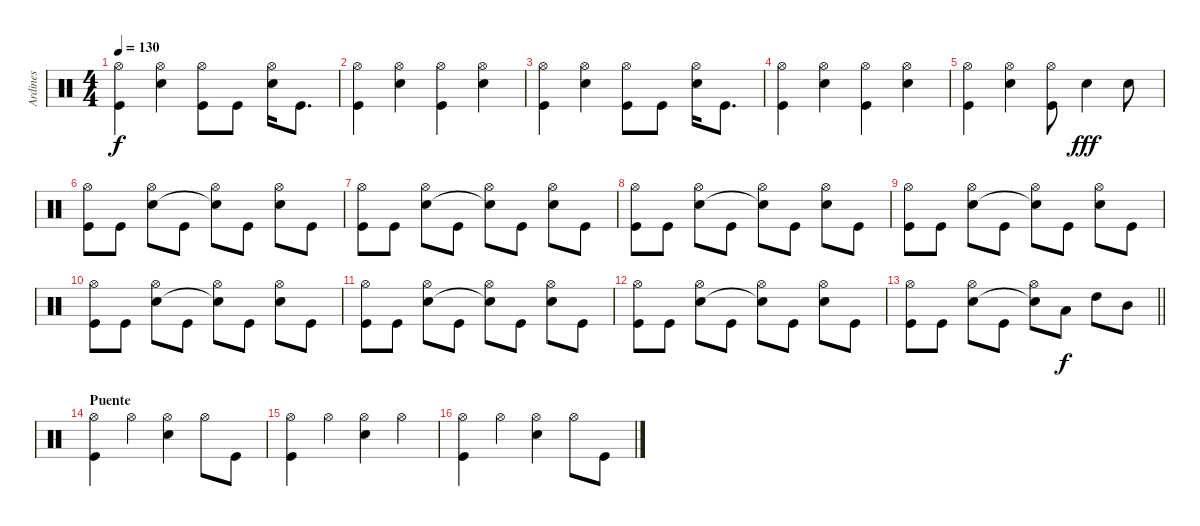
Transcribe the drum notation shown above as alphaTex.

\track ("Ardines" "Ardines") {instrument percussion}
\staff {score}
\articulation defaults
\ts (4 4)
\tempo 130
\clef neutral
\ks c
("Hi-Hat (open)" "Kick (hit)").4{dy f} ("Hi-Hat (open)" "Electric Snare (hit)").4 ("Hi-Hat (open)" "Kick (hit)").8 "Kick (hit)".8 ("Hi-Hat (open)" "Electric Snare (hit)").16 "Kick (hit)".8{d} |
("Hi-Hat (open)" "Kick (hit)").4 ("Hi-Hat (open)" "Electric Snare (hit)").4 ("Hi-Hat (open)" "Kick (hit)").4 ("Hi-Hat (open)" "Electric Snare (hit)").4 |
("Hi-Hat (open)" "Kick (hit)").4 ("Hi-Hat (open)" "Electric Snare (hit)").4 ("Hi-Hat (open)" "Kick (hit)").8 "Kick (hit)".8 ("Hi-Hat (open)" "Electric Snare (hit)").16 "Kick (hit)".8{d} |
("Hi-Hat (open)" "Kick (hit)").4 ("Hi-Hat (open)" "Electric Snare (hit)").4 ("Hi-Hat (open)" "Kick (hit)").4 ("Hi-Hat (open)" "Electric Snare (hit)").4 |
("Hi-Hat (open)" "Kick (hit)").4 ("Hi-Hat (open)" "Electric Snare (hit)").4 ("Hi-Hat (open)" "Kick (hit)").8 "Electric Snare (hit)".4{dy fff} "Electric Snare (hit)".8 |
("Hi-Hat (open)" "Kick (hit)").8 "Kick (hit)".8 ("Hi-Hat (open)" "Electric Snare (hit)").8 "Kick (hit)".8 ("Hi-Hat (open)" "Snare (hit)"{t}).8 "Kick (hit)".8 ("Hi-Hat (open)" "Electric Snare (hit)").8 "Kick (hit)".8 |
("Hi-Hat (open)" "Kick (hit)").8 "Kick (hit)".8 ("Hi-Hat (open)" "Electric Snare (hit)").8 "Kick (hit)".8 ("Hi-Hat (open)" "Snare (hit)"{t}).8 "Kick (hit)".8 ("Hi-Hat (open)" "Electric Snare (hit)").8 "Kick (hit)".8 |
("Hi-Hat (open)" "Kick (hit)").8 "Kick (hit)".8 ("Hi-Hat (open)" "Electric Snare (hit)").8 "Kick (hit)".8 ("Hi-Hat (open)" "Snare (hit)"{t}).8 "Kick (hit)".8 ("Hi-Hat (open)" "Electric Snare (hit)").8 "Kick (hit)".8 |
("Hi-Hat (open)" "Kick (hit)").8 "Kick (hit)".8 ("Hi-Hat (open)" "Electric Snare (hit)").8 "Kick (hit)".8 ("Hi-Hat (open)" "Snare (hit)"{t}).8 "Kick (hit)".8 ("Hi-Hat (open)" "Electric Snare (hit)").8 "Kick (hit)".8 |
("Hi-Hat (open)" "Kick (hit)").8 "Kick (hit)".8 ("Hi-Hat (open)" "Electric Snare (hit)").8 "Kick (hit)".8 ("Hi-Hat (open)" "Snare (hit)"{t}).8 "Kick (hit)".8 ("Hi-Hat (open)" "Electric Snare (hit)").8 "Kick (hit)".8 |
("Hi-Hat (open)" "Kick (hit)").8 "Kick (hit)".8 ("Hi-Hat (open)" "Electric Snare (hit)").8 "Kick (hit)".8 ("Hi-Hat (open)" "Snare (hit)"{t}).8 "Kick (hit)".8 ("Hi-Hat (open)" "Electric Snare (hit)").8 "Kick (hit)".8 |
("Hi-Hat (open)" "Kick (hit)").8 "Kick (hit)".8 ("Hi-Hat (open)" "Electric Snare (hit)").8 "Kick (hit)".8 ("Hi-Hat (open)" "Snare (hit)"{t}).8 "Kick (hit)".8 ("Hi-Hat (open)" "Electric Snare (hit)").8 "Kick (hit)".8 |
\barLineRight lightlight
("Hi-Hat (open)" "Kick (hit)").8 "Kick (hit)".8 ("Hi-Hat (open)" "Electric Snare (hit)").8 "Kick (hit)".8 ("Hi-Hat (open)" "Snare (hit)"{t}).8 "Low Tom (hit)".8{dy f} "High Tom (hit)".8 "Mid Tom (hit)".8 |
\section ("" "Puente")
("Hi-Hat (open)" "Kick (hit)").4 "Hi-Hat (open)".4 ("Hi-Hat (open)" "Electric Snare (hit)").4 "Hi-Hat (open)".8 "Kick (hit)".8 |
("Hi-Hat (open)" "Kick (hit)").4 "Hi-Hat (open)".4 ("Hi-Hat (open)" "Electric Snare (hit)").4 "Hi-Hat (open)".4 |
("Hi-Hat (open)" "Kick (hit)").4 "Hi-Hat (open)".4 ("Hi-Hat (open)" "Electric Snare (hit)").4 "Hi-Hat (open)".8 "Kick (hit)".8
